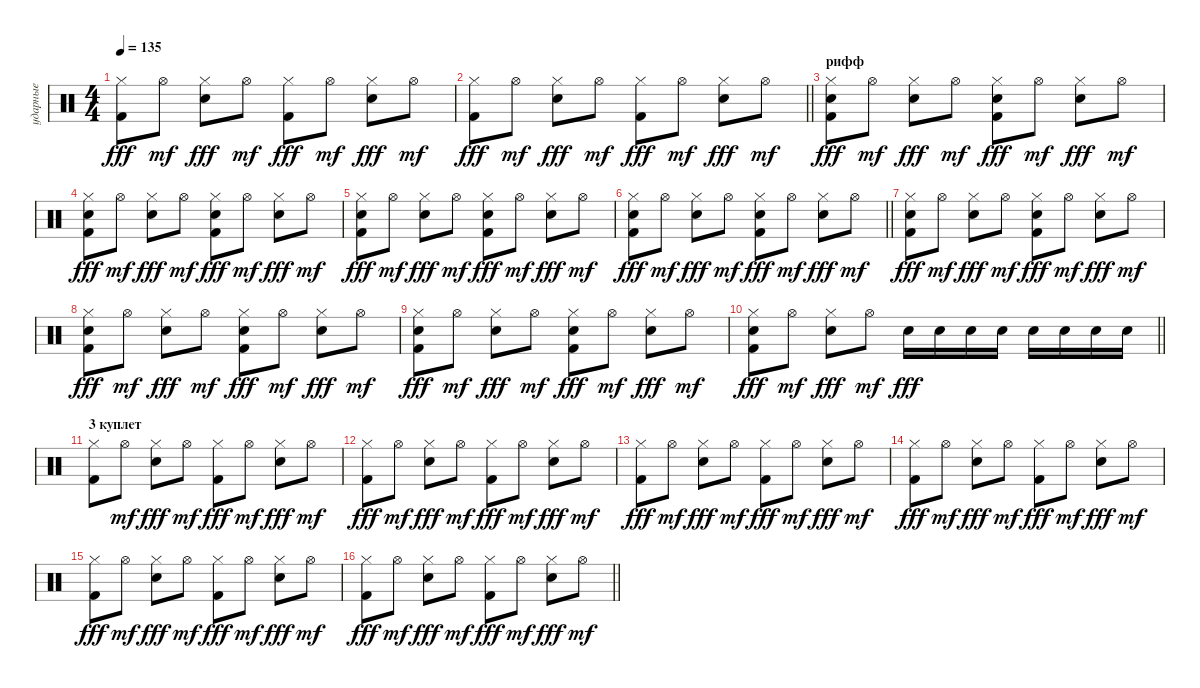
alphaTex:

\track ("ударные" "ударные") {instrument percussion}
\staff {score}
\articulation defaults
\ts (4 4)
\tempo 135
\clef neutral
\ks c
("Hi-Hat (closed)" "Kick (hit) 2").8{dy fff} "Hi-Hat (open)".8{dy mf} ("Hi-Hat (closed)" "Snare (hit) 2").8{dy fff} "Hi-Hat (open)".8{dy mf} ("Hi-Hat (closed)" "Kick (hit) 2").8{dy fff} "Hi-Hat (open)".8{dy mf} ("Hi-Hat (closed)" "Snare (hit) 2").8{dy fff} "Hi-Hat (open)".8{dy mf} |
\barLineRight lightlight
("Hi-Hat (closed)" "Kick (hit) 2").8{dy fff} "Hi-Hat (open)".8{dy mf} ("Hi-Hat (closed)" "Snare (hit) 2").8{dy fff} "Hi-Hat (open)".8{dy mf} ("Hi-Hat (closed)" "Kick (hit) 2").8{dy fff} "Hi-Hat (open)".8{dy mf} ("Hi-Hat (closed)" "Snare (hit) 2").8{dy fff} "Hi-Hat (open)".8{dy mf} |
\section ("" "рифф")
("Hi-Hat (closed)" "Electric Snare (hit)" "Kick (hit) 2").8{dy fff} "Hi-Hat (open)".8{dy mf} ("Hi-Hat (closed)" "Snare (hit) 2").8{dy fff} "Hi-Hat (open)".8{dy mf} ("Hi-Hat (closed)" "Electric Snare (hit)" "Kick (hit) 2").8{dy fff} "Hi-Hat (open)".8{dy mf} ("Hi-Hat (closed)" "Snare (hit) 2").8{dy fff} "Hi-Hat (open)".8{dy mf} |
("Hi-Hat (closed)" "Electric Snare (hit)" "Kick (hit) 2").8{dy fff} "Hi-Hat (open)".8{dy mf} ("Hi-Hat (closed)" "Snare (hit) 2").8{dy fff} "Hi-Hat (open)".8{dy mf} ("Hi-Hat (closed)" "Electric Snare (hit)" "Kick (hit) 2").8{dy fff} "Hi-Hat (open)".8{dy mf} ("Hi-Hat (closed)" "Snare (hit) 2").8{dy fff} "Hi-Hat (open)".8{dy mf} |
("Hi-Hat (closed)" "Electric Snare (hit)" "Kick (hit) 2").8{dy fff} "Hi-Hat (open)".8{dy mf} ("Hi-Hat (closed)" "Snare (hit) 2").8{dy fff} "Hi-Hat (open)".8{dy mf} ("Hi-Hat (closed)" "Electric Snare (hit)" "Kick (hit) 2").8{dy fff} "Hi-Hat (open)".8{dy mf} ("Hi-Hat (closed)" "Snare (hit) 2").8{dy fff} "Hi-Hat (open)".8{dy mf} |
\barLineRight lightlight
("Hi-Hat (closed)" "Electric Snare (hit)" "Kick (hit) 2").8{dy fff} "Hi-Hat (open)".8{dy mf} ("Hi-Hat (closed)" "Snare (hit) 2").8{dy fff} "Hi-Hat (open)".8{dy mf} ("Hi-Hat (closed)" "Electric Snare (hit)" "Kick (hit) 2").8{dy fff} "Hi-Hat (open)".8{dy mf} ("Hi-Hat (closed)" "Snare (hit) 2").8{dy fff} "Hi-Hat (open)".8{dy mf} |
("Hi-Hat (closed)" "Electric Snare (hit)" "Kick (hit) 2").8{dy fff} "Hi-Hat (open)".8{dy mf} ("Hi-Hat (closed)" "Snare (hit) 2").8{dy fff} "Hi-Hat (open)".8{dy mf} ("Hi-Hat (closed)" "Electric Snare (hit)" "Kick (hit) 2").8{dy fff} "Hi-Hat (open)".8{dy mf} ("Hi-Hat (closed)" "Snare (hit) 2").8{dy fff} "Hi-Hat (open)".8{dy mf} |
("Hi-Hat (closed)" "Electric Snare (hit)" "Kick (hit) 2").8{dy fff} "Hi-Hat (open)".8{dy mf} ("Hi-Hat (closed)" "Snare (hit) 2").8{dy fff} "Hi-Hat (open)".8{dy mf} ("Hi-Hat (closed)" "Electric Snare (hit)" "Kick (hit) 2").8{dy fff} "Hi-Hat (open)".8{dy mf} ("Hi-Hat (closed)" "Snare (hit) 2").8{dy fff} "Hi-Hat (open)".8{dy mf} |
("Hi-Hat (closed)" "Electric Snare (hit)" "Kick (hit) 2").8{dy fff} "Hi-Hat (open)".8{dy mf} ("Hi-Hat (closed)" "Snare (hit) 2").8{dy fff} "Hi-Hat (open)".8{dy mf} ("Hi-Hat (closed)" "Electric Snare (hit)" "Kick (hit) 2").8{dy fff} "Hi-Hat (open)".8{dy mf} ("Hi-Hat (closed)" "Snare (hit) 2").8{dy fff} "Hi-Hat (open)".8{dy mf} |
\barLineRight lightlight
("Hi-Hat (closed)" "Electric Snare (hit)" "Kick (hit) 2").8{dy fff} "Hi-Hat (open)".8{dy mf} ("Hi-Hat (closed)" "Snare (hit) 2").8{dy fff} "Hi-Hat (open)".8{dy mf} "Snare (hit) 2".16{dy fff} "Snare (hit) 2".16 "Snare (hit) 2".16 "Snare (hit) 2".16 "Snare (hit) 2".16 "Snare (hit) 2".16 "Snare (hit) 2".16 "Snare (hit) 2".16 |
\section ("" "3 куплет")
("Hi-Hat (closed)" "Kick (hit) 2").8 "Hi-Hat (open)".8{dy mf} ("Hi-Hat (closed)" "Snare (hit) 2").8{dy fff} "Hi-Hat (open)".8{dy mf} ("Hi-Hat (closed)" "Kick (hit) 2").8{dy fff} "Hi-Hat (open)".8{dy mf} ("Hi-Hat (closed)" "Snare (hit) 2").8{dy fff} "Hi-Hat (open)".8{dy mf} |
("Hi-Hat (closed)" "Kick (hit) 2").8{dy fff} "Hi-Hat (open)".8{dy mf} ("Hi-Hat (closed)" "Snare (hit) 2").8{dy fff} "Hi-Hat (open)".8{dy mf} ("Hi-Hat (closed)" "Kick (hit) 2").8{dy fff} "Hi-Hat (open)".8{dy mf} ("Hi-Hat (closed)" "Snare (hit) 2").8{dy fff} "Hi-Hat (open)".8{dy mf} |
("Hi-Hat (closed)" "Kick (hit) 2").8{dy fff} "Hi-Hat (open)".8{dy mf} ("Hi-Hat (closed)" "Snare (hit) 2").8{dy fff} "Hi-Hat (open)".8{dy mf} ("Hi-Hat (closed)" "Kick (hit) 2").8{dy fff} "Hi-Hat (open)".8{dy mf} ("Hi-Hat (closed)" "Snare (hit) 2").8{dy fff} "Hi-Hat (open)".8{dy mf} |
("Hi-Hat (closed)" "Kick (hit) 2").8{dy fff} "Hi-Hat (open)".8{dy mf} ("Hi-Hat (closed)" "Snare (hit) 2").8{dy fff} "Hi-Hat (open)".8{dy mf} ("Hi-Hat (closed)" "Kick (hit) 2").8{dy fff} "Hi-Hat (open)".8{dy mf} ("Hi-Hat (closed)" "Snare (hit) 2").8{dy fff} "Hi-Hat (open)".8{dy mf} |
("Hi-Hat (closed)" "Kick (hit) 2").8{dy fff} "Hi-Hat (open)".8{dy mf} ("Hi-Hat (closed)" "Snare (hit) 2").8{dy fff} "Hi-Hat (open)".8{dy mf} ("Hi-Hat (closed)" "Kick (hit) 2").8{dy fff} "Hi-Hat (open)".8{dy mf} ("Hi-Hat (closed)" "Snare (hit) 2").8{dy fff} "Hi-Hat (open)".8{dy mf} |
\barLineRight lightlight
("Hi-Hat (closed)" "Kick (hit) 2").8{dy fff} "Hi-Hat (open)".8{dy mf} ("Hi-Hat (closed)" "Snare (hit) 2").8{dy fff} "Hi-Hat (open)".8{dy mf} ("Hi-Hat (closed)" "Kick (hit) 2").8{dy fff} "Hi-Hat (open)".8{dy mf} ("Hi-Hat (closed)" "Snare (hit) 2").8{dy fff} "Hi-Hat (open)".8{dy mf}
